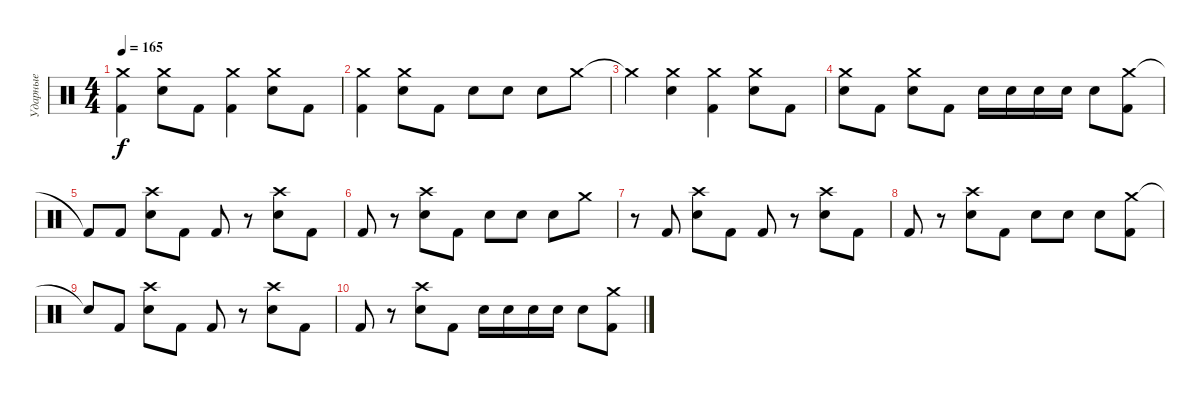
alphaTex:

\track ("Ударные" "Ударные") {instrument percussion}
\staff {score}
\articulation defaults
\ts (4 4)
\tempo 165
\clef neutral
\ks c
("Crash medium (hit)" "Kick (hit) 2").4{dy f} ("Crash medium (hit)" "Snare (hit) 2").8 "Kick (hit) 2".8 ("Crash medium (hit)" "Kick (hit) 2").4 ("Crash medium (hit)" "Snare (hit) 2").8 "Kick (hit) 2".8 |
("Crash medium (hit)" "Kick (hit) 2").4 ("Crash medium (hit)" "Snare (hit) 2").8 "Kick (hit) 2".8 "Snare (hit) 2".8 "Snare (hit) 2".8 "Snare (hit) 2".8 "Crash medium (hit)".8 |
"Crash medium (hit)"{t}.4 ("Crash medium (hit)" "Snare (hit) 2").4 ("Crash medium (hit)" "Kick (hit) 2").4 ("Crash medium (hit)" "Snare (hit) 2").8 "Kick (hit) 2".8 |
("Crash medium (hit)" "Snare (hit) 2").8 "Kick (hit) 2".8 ("Crash medium (hit)" "Snare (hit) 2").8 "Kick (hit) 2".8 "Snare (hit) 2".16 "Snare (hit) 2".16 "Snare (hit) 2".16 "Snare (hit) 2".16 "Snare (hit) 2".8 ("Crash medium (hit)" "Kick (hit) 2").8 |
"Kick (hit) 2"{t}.8 "Kick (hit) 2".8 ("Crash high (hit)" "Snare (hit) 2").8 "Kick (hit) 2".8 "Kick (hit) 2".8 r.8 ("Crash high (hit)" "Snare (hit) 2").8 "Kick (hit) 2".8 |
"Kick (hit) 2".8 r.8 ("Crash high (hit)" "Snare (hit) 2").8 "Kick (hit) 2".8 "Snare (hit) 2".8 "Snare (hit) 2".8 "Snare (hit) 2".8 "Crash medium (hit)".8 |
r.8 "Kick (hit) 2".8 ("Crash high (hit)" "Snare (hit) 2").8 "Kick (hit) 2".8 "Kick (hit) 2".8 r.8 ("Crash high (hit)" "Snare (hit) 2").8 "Kick (hit) 2".8 |
"Kick (hit) 2".8 r.8 ("Crash high (hit)" "Snare (hit) 2").8 "Kick (hit) 2".8 "Snare (hit) 2".8 "Snare (hit) 2".8 "Snare (hit) 2".8 ("Crash medium (hit)" "Kick (hit) 2").8 |
"Snare (hit)"{t}.8 "Kick (hit) 2".8 ("Crash high (hit)" "Snare (hit) 2").8 "Kick (hit) 2".8 "Kick (hit) 2".8 r.8 ("Crash high (hit)" "Snare (hit) 2").8 "Kick (hit) 2".8 |
"Kick (hit) 2".8 r.8 ("Crash high (hit)" "Snare (hit) 2").8 "Kick (hit) 2".8 "Snare (hit) 2".16 "Snare (hit) 2".16 "Snare (hit) 2".16 "Snare (hit) 2".16 "Snare (hit) 2".8 ("Crash medium (hit)" "Kick (hit) 2").8
